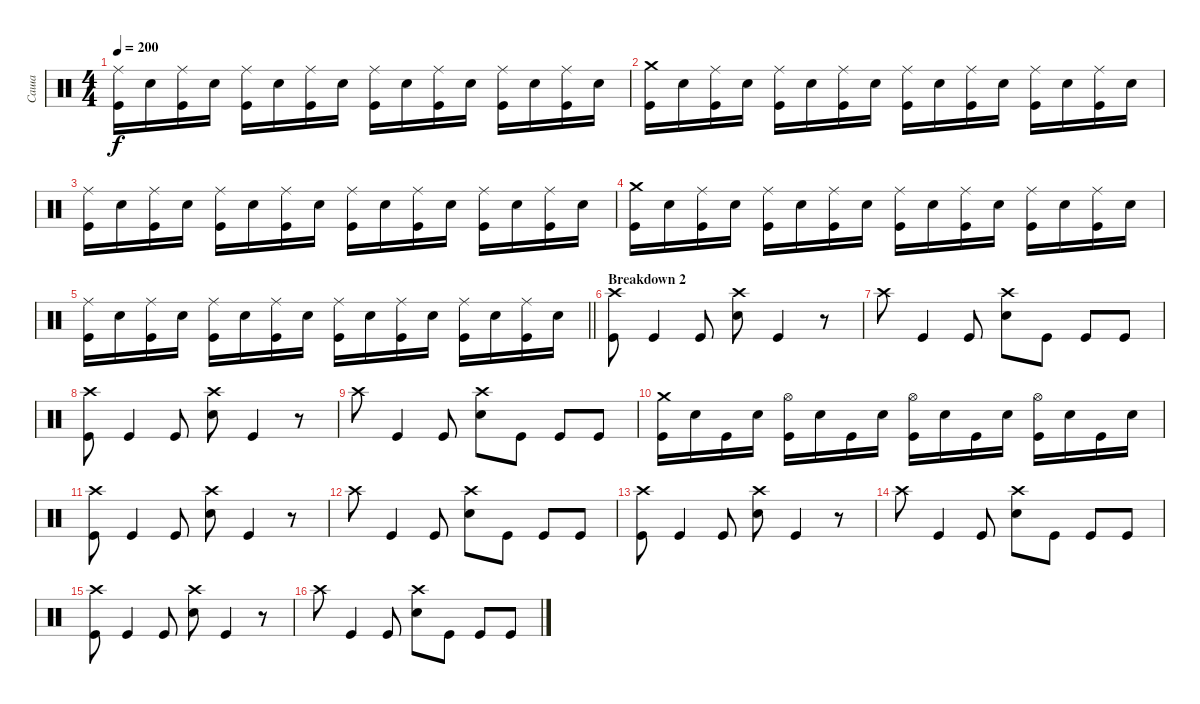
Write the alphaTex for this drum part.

\track ("Саша" "Саша") {instrument percussion}
\staff {score}
\articulation defaults
\ts (4 4)
\tempo 200
\clef neutral
\ks c
("Ride (middle)" "Kick (hit)").16{dy f} "Electric Snare (hit)".16 ("Ride (middle)" "Kick (hit)").16 "Electric Snare (hit)".16 ("Ride (middle)" "Kick (hit)").16 "Electric Snare (hit)".16 ("Ride (middle)" "Kick (hit)").16 "Electric Snare (hit)".16 ("Ride (middle)" "Kick (hit)").16 "Electric Snare (hit)".16 ("Ride (middle)" "Kick (hit)").16 "Electric Snare (hit)".16 ("Ride (middle)" "Kick (hit)").16 "Electric Snare (hit)".16 ("Ride (middle)" "Kick (hit)").16 "Electric Snare (hit)".16 |
("Crash medium (hit)" "Kick (hit)").16 "Electric Snare (hit)".16 ("Ride (middle)" "Kick (hit)").16 "Electric Snare (hit)".16 ("Ride (middle)" "Kick (hit)").16 "Electric Snare (hit)".16 ("Ride (middle)" "Kick (hit)").16 "Electric Snare (hit)".16 ("Ride (middle)" "Kick (hit)").16 "Electric Snare (hit)".16 ("Ride (middle)" "Kick (hit)").16 "Electric Snare (hit)".16 ("Ride (middle)" "Kick (hit)").16 "Electric Snare (hit)".16 ("Ride (middle)" "Kick (hit)").16 "Electric Snare (hit)".16 |
("Ride (middle)" "Kick (hit)").16 "Electric Snare (hit)".16 ("Ride (middle)" "Kick (hit)").16 "Electric Snare (hit)".16 ("Ride (middle)" "Kick (hit)").16 "Electric Snare (hit)".16 ("Ride (middle)" "Kick (hit)").16 "Electric Snare (hit)".16 ("Ride (middle)" "Kick (hit)").16 "Electric Snare (hit)".16 ("Ride (middle)" "Kick (hit)").16 "Electric Snare (hit)".16 ("Ride (middle)" "Kick (hit)").16 "Electric Snare (hit)".16 ("Ride (middle)" "Kick (hit)").16 "Electric Snare (hit)".16 |
("Crash medium (hit)" "Kick (hit)").16 "Electric Snare (hit)".16 ("Ride (middle)" "Kick (hit)").16 "Electric Snare (hit)".16 ("Ride (middle)" "Kick (hit)").16 "Electric Snare (hit)".16 ("Ride (middle)" "Kick (hit)").16 "Electric Snare (hit)".16 ("Ride (middle)" "Kick (hit)").16 "Electric Snare (hit)".16 ("Ride (middle)" "Kick (hit)").16 "Electric Snare (hit)".16 ("Ride (middle)" "Kick (hit)").16 "Electric Snare (hit)".16 ("Ride (middle)" "Kick (hit)").16 "Electric Snare (hit)".16 |
\barLineRight lightlight
("Ride (middle)" "Kick (hit)").16 "Electric Snare (hit)".16 ("Ride (middle)" "Kick (hit)").16 "Electric Snare (hit)".16 ("Ride (middle)" "Kick (hit)").16 "Electric Snare (hit)".16 ("Ride (middle)" "Kick (hit)").16 "Electric Snare (hit)".16 ("Ride (middle)" "Kick (hit)").16 "Electric Snare (hit)".16 ("Ride (middle)" "Kick (hit)").16 "Electric Snare (hit)".16 ("Ride (middle)" "Kick (hit)").16 "Electric Snare (hit)".16 ("Ride (middle)" "Kick (hit)").16 "Electric Snare (hit)".16 |
\section ("" "Breakdown 2")
("Crash high (hit)" "Kick (hit)").8 "Kick (hit)".4 "Kick (hit)".8 ("Crash high (hit)" "Electric Snare (hit)").8 "Kick (hit)".4 r.8 |
"Crash high (hit)".8 "Kick (hit)".4 "Kick (hit)".8 ("Crash high (hit)" "Electric Snare (hit)").8 "Kick (hit)".8 "Kick (hit)".8 "Kick (hit)".8 |
("Crash high (hit)" "Kick (hit)").8 "Kick (hit)".4 "Kick (hit)".8 ("Crash high (hit)" "Electric Snare (hit)").8 "Kick (hit)".4 r.8 |
"Crash high (hit)".8 "Kick (hit)".4 "Kick (hit)".8 ("Crash high (hit)" "Electric Snare (hit)").8 "Kick (hit)".8 "Kick (hit)".8 "Kick (hit)".8 |
("Crash medium (hit)" "Kick (hit)").16 "Electric Snare (hit)".16 "Kick (hit)".16 "Electric Snare (hit)".16 ("Hi-Hat (open)" "Kick (hit)").16 "Electric Snare (hit)".16 "Kick (hit)".16 "Electric Snare (hit)".16 ("Hi-Hat (open)" "Kick (hit)").16 "Electric Snare (hit)".16 "Kick (hit)".16 "Electric Snare (hit)".16 ("Hi-Hat (open)" "Kick (hit)").16 "Electric Snare (hit)".16 "Kick (hit)".16 "Electric Snare (hit)".16 |
("Crash high (hit)" "Kick (hit)").8 "Kick (hit)".4 "Kick (hit)".8 ("Crash high (hit)" "Electric Snare (hit)").8 "Kick (hit)".4 r.8 |
"Crash high (hit)".8 "Kick (hit)".4 "Kick (hit)".8 ("Crash high (hit)" "Electric Snare (hit)").8 "Kick (hit)".8 "Kick (hit)".8 "Kick (hit)".8 |
("Crash high (hit)" "Kick (hit)").8 "Kick (hit)".4 "Kick (hit)".8 ("Crash high (hit)" "Electric Snare (hit)").8 "Kick (hit)".4 r.8 |
"Crash high (hit)".8 "Kick (hit)".4 "Kick (hit)".8 ("Crash high (hit)" "Electric Snare (hit)").8 "Kick (hit)".8 "Kick (hit)".8 "Kick (hit)".8 |
("Crash high (hit)" "Kick (hit)").8 "Kick (hit)".4 "Kick (hit)".8 ("Crash high (hit)" "Electric Snare (hit)").8 "Kick (hit)".4 r.8 |
"Crash high (hit)".8 "Kick (hit)".4 "Kick (hit)".8 ("Crash high (hit)" "Electric Snare (hit)").8 "Kick (hit)".8 "Kick (hit)".8 "Kick (hit)".8
